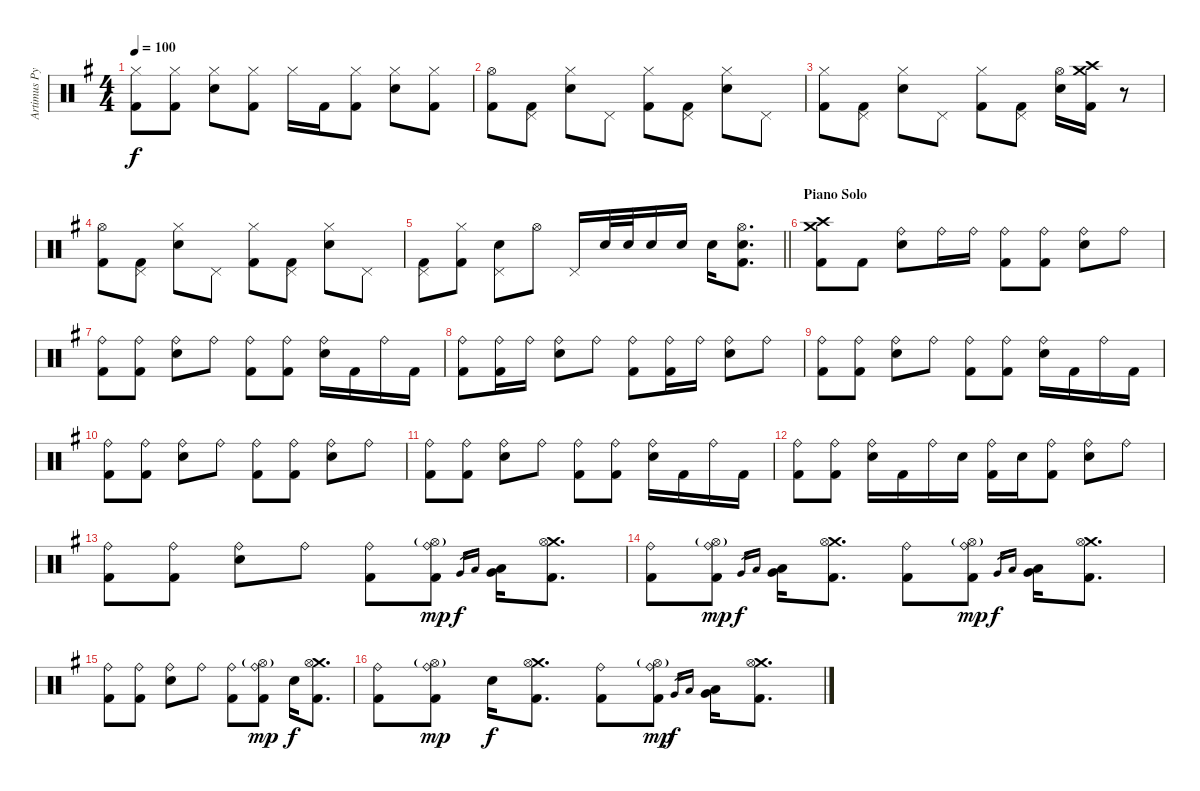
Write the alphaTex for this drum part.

\track ("Artimus Pyle" "Artimus Py") {instrument percussion}
\staff {score}
\articulation defaults
\ts (4 4)
\tempo 100
\clef neutral
\ks g
("Hi-Hat (closed)" "Kick (hit) 2").8{dy f} ("Hi-Hat (closed)" "Kick (hit) 2").8 ("Snare (hit) 2" "Hi-Hat (closed)").8 ("Hi-Hat (closed)" "Kick (hit) 2").8 "Hi-Hat (closed)".16 "Kick (hit) 2".16 ("Hi-Hat (closed)" "Kick (hit) 2").8 ("Snare (hit) 2" "Hi-Hat (closed)").8 ("Hi-Hat (closed)" "Kick (hit) 2").8 |
("Hi-Hat (open)" "Kick (hit) 2").8 ("Pedal Hi-Hat (hit)" "Kick (hit) 2").8 ("Snare (hit) 2" "Hi-Hat (closed)").8 "Pedal Hi-Hat (hit)".8 ("Hi-Hat (closed)" "Kick (hit) 2").8 ("Pedal Hi-Hat (hit)" "Kick (hit) 2").8 ("Snare (hit) 2" "Hi-Hat (closed)").8 "Pedal Hi-Hat (hit)".8 |
("Hi-Hat (closed)" "Kick (hit) 2").8 ("Pedal Hi-Hat (hit)" "Kick (hit) 2").8 ("Snare (hit) 2" "Hi-Hat (closed)").8 "Pedal Hi-Hat (hit)".8 ("Hi-Hat (closed)" "Kick (hit) 2").8 ("Pedal Hi-Hat (hit)" "Kick (hit) 2").8 ("Snare (hit) 2" "Hi-Hat (open)").16 ("Crash medium (hit)" "Crash high (hit)" "Kick (hit) 2").16 r.8 |
("Hi-Hat (open)" "Kick (hit) 2").8 ("Pedal Hi-Hat (hit)" "Kick (hit) 2").8 ("Snare (hit) 2" "Hi-Hat (closed)").8 "Pedal Hi-Hat (hit)".8 ("Hi-Hat (closed)" "Kick (hit) 2").8 ("Pedal Hi-Hat (hit)" "Kick (hit) 2").8 ("Snare (hit) 2" "Hi-Hat (closed)").8 "Pedal Hi-Hat (hit)".8 |
\barLineRight lightlight
("Pedal Hi-Hat (hit)" "Kick (hit) 2").8 ("Hi-Hat (closed)" "Kick (hit) 2").8 ("Snare (hit) 2" "Pedal Hi-Hat (hit)").8 "Hi-Hat (open)".8 "Pedal Hi-Hat (hit)".16 "Snare (hit) 2".32 "Snare (hit) 2".32 "Snare (hit) 2".16 "Snare (hit) 2".16 "Snare (hit) 2".16 ("Snare (hit) 2" "Hi-Hat (open)" "Kick (hit) 2").8{d} |
\section ("" "Piano Solo")
("Crash medium (hit)" "Crash high (hit)" "Kick (hit) 2").8 "Kick (hit) 2".8 ("Ride (bell)" "Snare (hit) 2").8 "Ride (bell)".16 "Ride (bell)".16 ("Ride (bell)" "Kick (hit) 2").8 ("Ride (bell)" "Kick (hit) 2").8 ("Ride (bell)" "Snare (hit) 2").8 "Ride (bell)".8 |
("Ride (bell)" "Kick (hit) 2").8 ("Ride (bell)" "Kick (hit) 2").8 ("Ride (bell)" "Snare (hit) 2").8 "Ride (bell)".8 ("Ride (bell)" "Kick (hit) 2").8 ("Ride (bell)" "Kick (hit) 2").8 ("Ride (bell)" "Snare (hit) 2").16 "Kick (hit) 2".16 "Ride (bell)".16 "Kick (hit) 2".16 |
("Ride (bell)" "Kick (hit) 2").8 ("Ride (bell)" "Kick (hit) 2").16 "Ride (bell)".16 ("Ride (bell)" "Snare (hit) 2").8 "Ride (bell)".8 ("Ride (bell)" "Kick (hit) 2").8 ("Ride (bell)" "Kick (hit) 2").16 "Ride (bell)".16 ("Ride (bell)" "Snare (hit) 2").8 "Ride (bell)".8 |
("Ride (bell)" "Kick (hit) 2").8 ("Ride (bell)" "Kick (hit) 2").8 ("Ride (bell)" "Snare (hit) 2").8 "Ride (bell)".8 ("Ride (bell)" "Kick (hit) 2").8 ("Ride (bell)" "Kick (hit) 2").8 ("Ride (bell)" "Snare (hit) 2").16 "Kick (hit) 2".16 "Ride (bell)".16 "Kick (hit) 2".16 |
("Ride (bell)" "Kick (hit) 2").8 ("Ride (bell)" "Kick (hit) 2").8 ("Ride (bell)" "Snare (hit) 2").8 "Ride (bell)".8 ("Ride (bell)" "Kick (hit) 2").8 ("Ride (bell)" "Kick (hit) 2").8 ("Ride (bell)" "Snare (hit) 2").8 "Ride (bell)".8 |
("Ride (bell)" "Kick (hit) 2").8 ("Ride (bell)" "Kick (hit) 2").8 ("Ride (bell)" "Snare (hit) 2").8 "Ride (bell)".8 ("Ride (bell)" "Kick (hit) 2").8 ("Ride (bell)" "Kick (hit) 2").8 ("Ride (bell)" "Snare (hit) 2").16 "Kick (hit) 2".16 "Ride (bell)".16 "Kick (hit) 2".16 |
("Ride (bell)" "Kick (hit) 2").8 ("Ride (bell)" "Kick (hit) 2").8 ("Ride (bell)" "Snare (hit) 2").16 "Kick (hit) 2".16 "Ride (bell)".16 "Snare (hit) 2".16 ("Ride (bell)" "Kick (hit) 2").16 "Snare (hit) 2".16 ("Ride (bell)" "Kick (hit) 2").8 ("Ride (bell)" "Snare (hit) 2").8 "Ride (bell)".8 |
("Ride (bell)" "Kick (hit) 2").8 ("Ride (bell)" "Kick (hit) 2").8 ("Ride (bell)" "Snare (hit) 2").8 "Ride (bell)".8 ("Ride (bell)" "Kick (hit) 2").8 ("Ride (bell)" "Hi-Hat (open)"{g} "Kick (hit) 2").8{dy mp} "Very Low Tom (hit)".16{gr dy f} "Low Floor Tom (hit)".16{gr} ("Very Low Tom (hit)" "Low Floor Tom (hit)").16 ("Crash medium (hit)" "Hi-Hat (open)" "Kick (hit) 2").8{d} |
("Ride (bell)" "Kick (hit) 2").8 ("Ride (bell)" "Hi-Hat (open)"{g} "Kick (hit) 2").8{dy mp} "Very Low Tom (hit)".16{gr dy f} "Low Floor Tom (hit)".16{gr} ("Very Low Tom (hit)" "Low Floor Tom (hit)").16 ("Crash medium (hit)" "Hi-Hat (open)" "Kick (hit) 2").8{d} ("Ride (bell)" "Kick (hit) 2").8 ("Ride (bell)" "Hi-Hat (open)"{g} "Kick (hit) 2").8{dy mp} "Very Low Tom (hit)".16{gr dy f} "Low Floor Tom (hit)".16{gr} ("Very Low Tom (hit)" "Low Floor Tom (hit)").16 ("Crash medium (hit)" "Hi-Hat (open)" "Kick (hit) 2").8{d} |
("Ride (bell)" "Kick (hit) 2").8 ("Ride (bell)" "Kick (hit) 2").8 ("Ride (bell)" "Snare (hit) 2").8 "Ride (bell)".8 ("Ride (bell)" "Kick (hit) 2").8 ("Ride (bell)" "Hi-Hat (open)"{g} "Kick (hit) 2").8{dy mp} "Snare (hit) 2".16{dy f} ("Crash medium (hit)" "Hi-Hat (open)" "Kick (hit) 2").8{d} |
("Ride (bell)" "Kick (hit) 2").8 ("Ride (bell)" "Hi-Hat (open)"{g} "Kick (hit) 2").8{dy mp} "Snare (hit) 2".16{dy f} ("Crash medium (hit)" "Hi-Hat (open)" "Kick (hit) 2").8{d} ("Ride (bell)" "Kick (hit) 2").8 ("Ride (bell)" "Hi-Hat (open)"{g} "Kick (hit) 2").8{dy mp} "Very Low Tom (hit)".16{gr dy f} "Low Floor Tom (hit)".16{gr} ("Very Low Tom (hit)" "Low Floor Tom (hit)").16 ("Crash medium (hit)" "Hi-Hat (open)" "Kick (hit) 2").8{d}
